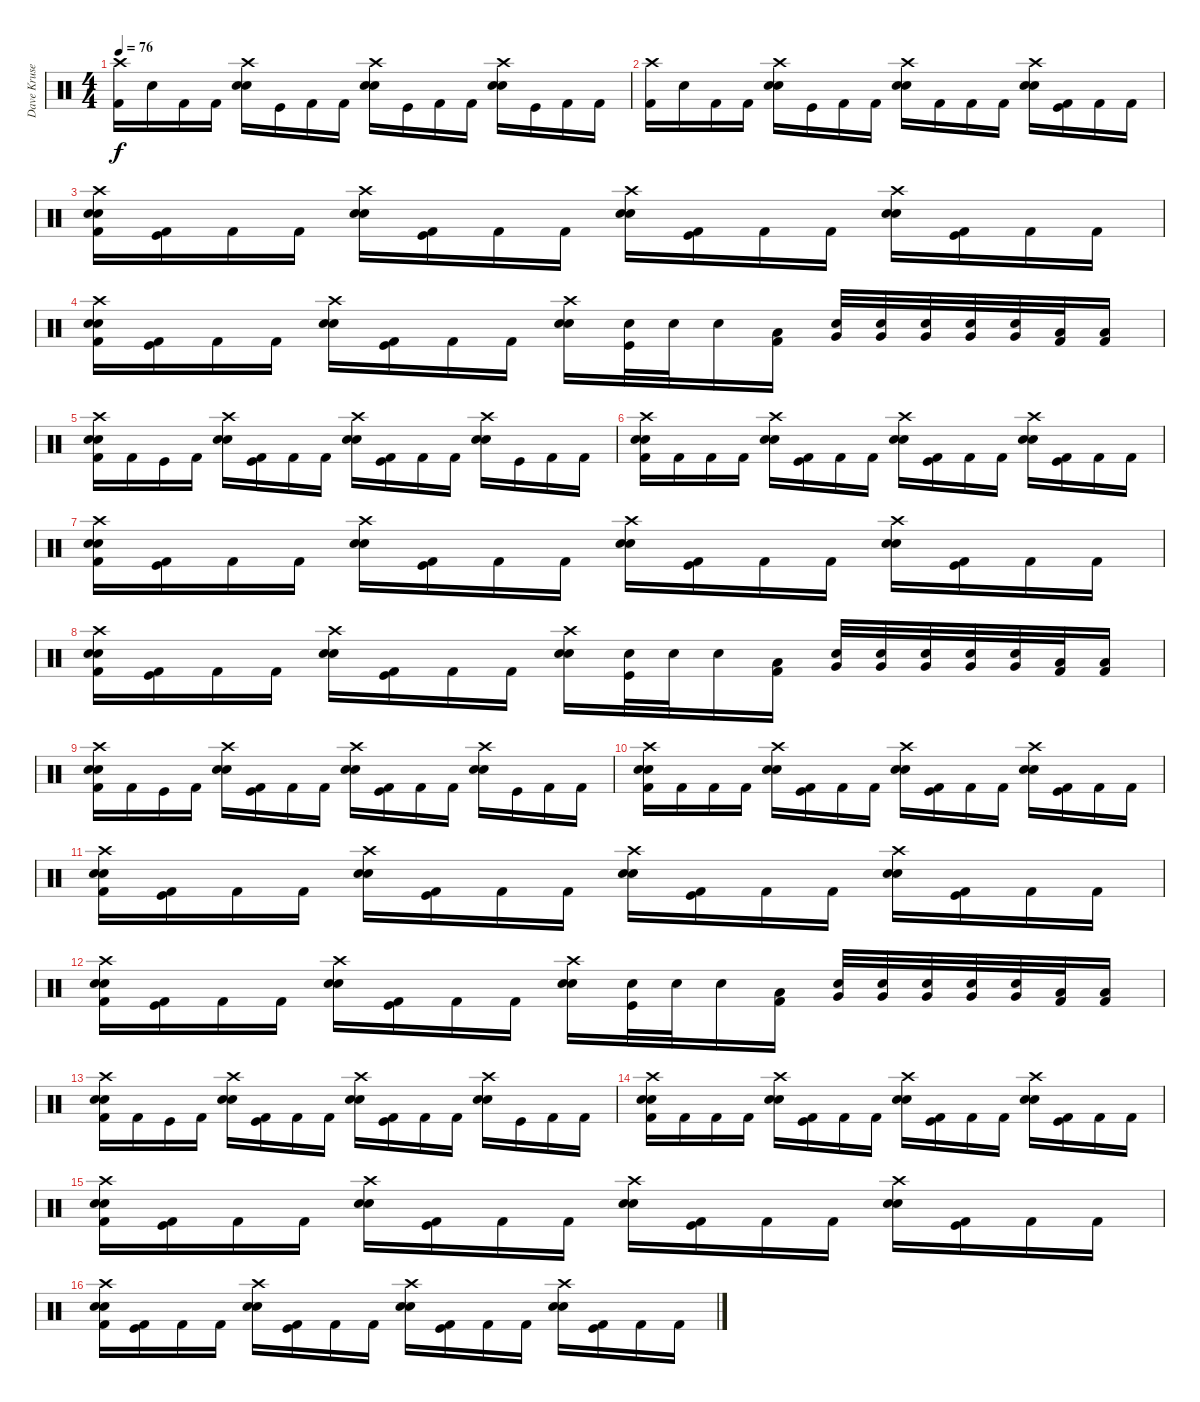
\track ("Dave Krusen" "Dave Kruse") {instrument percussion}
\staff {score}
\articulation defaults
\ts (4 4)
\tempo 76
\clef neutral
\ks c
("Crash high (hit)" "Kick (hit) 2").16{dy f} "Electric Snare (hit)".16 "Kick (hit) 2".16 "Kick (hit) 2".16 ("Crash high (hit)" "Electric Snare (hit)" "Electric Snare (hit)").16 "Kick (hit)".16 "Kick (hit) 2".16 "Kick (hit) 2".16 ("Crash high (hit)" "Electric Snare (hit)" "Electric Snare (hit)").16 "Kick (hit)".16 "Kick (hit) 2".16 "Kick (hit) 2".16 ("Crash high (hit)" "Electric Snare (hit)" "Electric Snare (hit)").16 "Kick (hit)".16 "Kick (hit) 2".16 "Kick (hit) 2".16 |
("Crash high (hit)" "Kick (hit) 2").16 "Electric Snare (hit)".16 "Kick (hit) 2".16 "Kick (hit) 2".16 ("Crash high (hit)" "Electric Snare (hit)" "Electric Snare (hit)").16 "Kick (hit)".16 "Kick (hit) 2".16 "Kick (hit) 2".16 ("Crash high (hit)" "Electric Snare (hit)" "Electric Snare (hit)").16 "Kick (hit) 2".16 "Kick (hit) 2".16 "Kick (hit) 2".16 ("Crash high (hit)" "Electric Snare (hit)" "Electric Snare (hit)").16 ("Kick (hit)" "Kick (hit) 2").16 "Kick (hit) 2".16 "Kick (hit) 2".16 |
("Crash high (hit)" "Electric Snare (hit)" "Electric Snare (hit)" "Kick (hit) 2").16 ("Kick (hit)" "Kick (hit) 2").16 "Kick (hit) 2".16 "Kick (hit) 2".16 ("Crash high (hit)" "Electric Snare (hit)" "Electric Snare (hit)").16 ("Kick (hit)" "Kick (hit) 2").16 "Kick (hit) 2".16 "Kick (hit) 2".16 ("Crash high (hit)" "Electric Snare (hit)" "Electric Snare (hit)").16 ("Kick (hit)" "Kick (hit) 2").16 "Kick (hit) 2".16 "Kick (hit) 2".16 ("Crash high (hit)" "Electric Snare (hit)" "Electric Snare (hit)").16 ("Kick (hit)" "Kick (hit) 2").16 "Kick (hit) 2".16 "Kick (hit) 2".16 |
("Crash high (hit)" "Electric Snare (hit)" "Electric Snare (hit)" "Kick (hit) 2").16 ("Kick (hit)" "Kick (hit) 2").16 "Kick (hit) 2".16 "Kick (hit) 2".16 ("Crash high (hit)" "Electric Snare (hit)" "Electric Snare (hit)").16 ("Kick (hit)" "Kick (hit) 2").16 "Kick (hit) 2".16 "Kick (hit) 2".16 ("Crash high (hit)" "Electric Snare (hit)" "Electric Snare (hit)").16 ("Electric Snare (hit)" "Kick (hit)").32 "Electric Snare (hit)".32 "Electric Snare (hit)".16 ("Low Tom (hit)" "Kick (hit) 2").16 ("Electric Snare (hit)" "Very Low Tom (hit)").32 ("Electric Snare (hit)" "Very Low Tom (hit)").32 ("Electric Snare (hit)" "Very Low Tom (hit)").32 ("Electric Snare (hit)" "Very Low Tom (hit)").32 ("Electric Snare (hit)" "Very Low Tom (hit)").32 ("Low Floor Tom (hit)" "Kick (hit) 2").32 ("Low Floor Tom (hit)" "Kick (hit) 2").16 |
("Crash high (hit)" "Electric Snare (hit)" "Electric Snare (hit)" "Kick (hit) 2").16 "Kick (hit) 2".16 "Kick (hit)".16 "Kick (hit) 2".16 ("Crash high (hit)" "Electric Snare (hit)" "Electric Snare (hit)").16 ("Kick (hit)" "Kick (hit) 2").16 "Kick (hit) 2".16 "Kick (hit) 2".16 ("Crash high (hit)" "Electric Snare (hit)" "Electric Snare (hit)").16 ("Kick (hit)" "Kick (hit) 2").16 "Kick (hit) 2".16 "Kick (hit) 2".16 ("Crash high (hit)" "Electric Snare (hit)" "Electric Snare (hit)").16 "Kick (hit)".16 "Kick (hit) 2".16 "Kick (hit) 2".16 |
("Crash high (hit)" "Electric Snare (hit)" "Electric Snare (hit)" "Kick (hit) 2").16 "Kick (hit) 2".16 "Kick (hit) 2".16 "Kick (hit) 2".16 ("Crash high (hit)" "Electric Snare (hit)" "Electric Snare (hit)").16 ("Kick (hit)" "Kick (hit) 2").16 "Kick (hit) 2".16 "Kick (hit) 2".16 ("Crash high (hit)" "Electric Snare (hit)" "Electric Snare (hit)").16 ("Kick (hit)" "Kick (hit) 2").16 "Kick (hit) 2".16 "Kick (hit) 2".16 ("Crash high (hit)" "Electric Snare (hit)" "Electric Snare (hit)").16 ("Kick (hit)" "Kick (hit) 2").16 "Kick (hit) 2".16 "Kick (hit) 2".16 |
("Crash high (hit)" "Electric Snare (hit)" "Electric Snare (hit)" "Kick (hit) 2").16 ("Kick (hit)" "Kick (hit) 2").16 "Kick (hit) 2".16 "Kick (hit) 2".16 ("Crash high (hit)" "Electric Snare (hit)" "Electric Snare (hit)").16 ("Kick (hit)" "Kick (hit) 2").16 "Kick (hit) 2".16 "Kick (hit) 2".16 ("Crash high (hit)" "Electric Snare (hit)" "Electric Snare (hit)").16 ("Kick (hit)" "Kick (hit) 2").16 "Kick (hit) 2".16 "Kick (hit) 2".16 ("Crash high (hit)" "Electric Snare (hit)" "Electric Snare (hit)").16 ("Kick (hit)" "Kick (hit) 2").16 "Kick (hit) 2".16 "Kick (hit) 2".16 |
("Crash high (hit)" "Electric Snare (hit)" "Electric Snare (hit)" "Kick (hit) 2").16 ("Kick (hit)" "Kick (hit) 2").16 "Kick (hit) 2".16 "Kick (hit) 2".16 ("Crash high (hit)" "Electric Snare (hit)" "Electric Snare (hit)").16 ("Kick (hit)" "Kick (hit) 2").16 "Kick (hit) 2".16 "Kick (hit) 2".16 ("Crash high (hit)" "Electric Snare (hit)" "Electric Snare (hit)").16 ("Electric Snare (hit)" "Kick (hit)").32 "Electric Snare (hit)".32 "Electric Snare (hit)".16 ("Low Tom (hit)" "Kick (hit) 2").16 ("Electric Snare (hit)" "Very Low Tom (hit)").32 ("Electric Snare (hit)" "Very Low Tom (hit)").32 ("Electric Snare (hit)" "Very Low Tom (hit)").32 ("Electric Snare (hit)" "Very Low Tom (hit)").32 ("Electric Snare (hit)" "Very Low Tom (hit)").32 ("Low Floor Tom (hit)" "Kick (hit) 2").32 ("Low Floor Tom (hit)" "Kick (hit) 2").16 |
("Crash high (hit)" "Electric Snare (hit)" "Electric Snare (hit)" "Kick (hit) 2").16 "Kick (hit) 2".16 "Kick (hit)".16 "Kick (hit) 2".16 ("Crash high (hit)" "Electric Snare (hit)" "Electric Snare (hit)").16 ("Kick (hit)" "Kick (hit) 2").16 "Kick (hit) 2".16 "Kick (hit) 2".16 ("Crash high (hit)" "Electric Snare (hit)" "Electric Snare (hit)").16 ("Kick (hit)" "Kick (hit) 2").16 "Kick (hit) 2".16 "Kick (hit) 2".16 ("Crash high (hit)" "Electric Snare (hit)" "Electric Snare (hit)").16 "Kick (hit)".16 "Kick (hit) 2".16 "Kick (hit) 2".16 |
("Crash high (hit)" "Electric Snare (hit)" "Electric Snare (hit)" "Kick (hit) 2").16 "Kick (hit) 2".16 "Kick (hit) 2".16 "Kick (hit) 2".16 ("Crash high (hit)" "Electric Snare (hit)" "Electric Snare (hit)").16 ("Kick (hit)" "Kick (hit) 2").16 "Kick (hit) 2".16 "Kick (hit) 2".16 ("Crash high (hit)" "Electric Snare (hit)" "Electric Snare (hit)").16 ("Kick (hit)" "Kick (hit) 2").16 "Kick (hit) 2".16 "Kick (hit) 2".16 ("Crash high (hit)" "Electric Snare (hit)" "Electric Snare (hit)").16 ("Kick (hit)" "Kick (hit) 2").16 "Kick (hit) 2".16 "Kick (hit) 2".16 |
("Crash high (hit)" "Electric Snare (hit)" "Electric Snare (hit)" "Kick (hit) 2").16 ("Kick (hit)" "Kick (hit) 2").16 "Kick (hit) 2".16 "Kick (hit) 2".16 ("Crash high (hit)" "Electric Snare (hit)" "Electric Snare (hit)").16 ("Kick (hit)" "Kick (hit) 2").16 "Kick (hit) 2".16 "Kick (hit) 2".16 ("Crash high (hit)" "Electric Snare (hit)" "Electric Snare (hit)").16 ("Kick (hit)" "Kick (hit) 2").16 "Kick (hit) 2".16 "Kick (hit) 2".16 ("Crash high (hit)" "Electric Snare (hit)" "Electric Snare (hit)").16 ("Kick (hit)" "Kick (hit) 2").16 "Kick (hit) 2".16 "Kick (hit) 2".16 |
("Crash high (hit)" "Electric Snare (hit)" "Electric Snare (hit)" "Kick (hit) 2").16 ("Kick (hit)" "Kick (hit) 2").16 "Kick (hit) 2".16 "Kick (hit) 2".16 ("Crash high (hit)" "Electric Snare (hit)" "Electric Snare (hit)").16 ("Kick (hit)" "Kick (hit) 2").16 "Kick (hit) 2".16 "Kick (hit) 2".16 ("Crash high (hit)" "Electric Snare (hit)" "Electric Snare (hit)").16 ("Electric Snare (hit)" "Kick (hit)").32 "Electric Snare (hit)".32 "Electric Snare (hit)".16 ("Low Tom (hit)" "Kick (hit) 2").16 ("Electric Snare (hit)" "Very Low Tom (hit)").32 ("Electric Snare (hit)" "Very Low Tom (hit)").32 ("Electric Snare (hit)" "Very Low Tom (hit)").32 ("Electric Snare (hit)" "Very Low Tom (hit)").32 ("Electric Snare (hit)" "Very Low Tom (hit)").32 ("Low Floor Tom (hit)" "Kick (hit) 2").32 ("Low Floor Tom (hit)" "Kick (hit) 2").16 |
("Crash high (hit)" "Electric Snare (hit)" "Electric Snare (hit)" "Kick (hit) 2").16 "Kick (hit) 2".16 "Kick (hit)".16 "Kick (hit) 2".16 ("Crash high (hit)" "Electric Snare (hit)" "Electric Snare (hit)").16 ("Kick (hit)" "Kick (hit) 2").16 "Kick (hit) 2".16 "Kick (hit) 2".16 ("Crash high (hit)" "Electric Snare (hit)" "Electric Snare (hit)").16 ("Kick (hit)" "Kick (hit) 2").16 "Kick (hit) 2".16 "Kick (hit) 2".16 ("Crash high (hit)" "Electric Snare (hit)" "Electric Snare (hit)").16 "Kick (hit)".16 "Kick (hit) 2".16 "Kick (hit) 2".16 |
("Crash high (hit)" "Electric Snare (hit)" "Electric Snare (hit)" "Kick (hit) 2").16 "Kick (hit) 2".16 "Kick (hit) 2".16 "Kick (hit) 2".16 ("Crash high (hit)" "Electric Snare (hit)" "Electric Snare (hit)").16 ("Kick (hit)" "Kick (hit) 2").16 "Kick (hit) 2".16 "Kick (hit) 2".16 ("Crash high (hit)" "Electric Snare (hit)" "Electric Snare (hit)").16 ("Kick (hit)" "Kick (hit) 2").16 "Kick (hit) 2".16 "Kick (hit) 2".16 ("Crash high (hit)" "Electric Snare (hit)" "Electric Snare (hit)").16 ("Kick (hit)" "Kick (hit) 2").16 "Kick (hit) 2".16 "Kick (hit) 2".16 |
("Crash high (hit)" "Electric Snare (hit)" "Electric Snare (hit)" "Kick (hit) 2").16 ("Kick (hit)" "Kick (hit) 2").16 "Kick (hit) 2".16 "Kick (hit) 2".16 ("Crash high (hit)" "Electric Snare (hit)" "Electric Snare (hit)").16 ("Kick (hit)" "Kick (hit) 2").16 "Kick (hit) 2".16 "Kick (hit) 2".16 ("Crash high (hit)" "Electric Snare (hit)" "Electric Snare (hit)").16 ("Kick (hit)" "Kick (hit) 2").16 "Kick (hit) 2".16 "Kick (hit) 2".16 ("Crash high (hit)" "Electric Snare (hit)" "Electric Snare (hit)").16 ("Kick (hit)" "Kick (hit) 2").16 "Kick (hit) 2".16 "Kick (hit) 2".16 |
("Crash high (hit)" "Electric Snare (hit)" "Electric Snare (hit)" "Kick (hit) 2").16 ("Kick (hit)" "Kick (hit) 2").16 "Kick (hit) 2".16 "Kick (hit) 2".16 ("Crash high (hit)" "Electric Snare (hit)" "Electric Snare (hit)").16 ("Kick (hit)" "Kick (hit) 2").16 "Kick (hit) 2".16 "Kick (hit) 2".16 ("Crash high (hit)" "Electric Snare (hit)" "Electric Snare (hit)").16 ("Kick (hit)" "Kick (hit) 2").16 "Kick (hit) 2".16 "Kick (hit) 2".16 ("Crash high (hit)" "Electric Snare (hit)" "Electric Snare (hit)").16 ("Kick (hit)" "Kick (hit) 2").16 "Kick (hit) 2".16 "Kick (hit) 2".16
